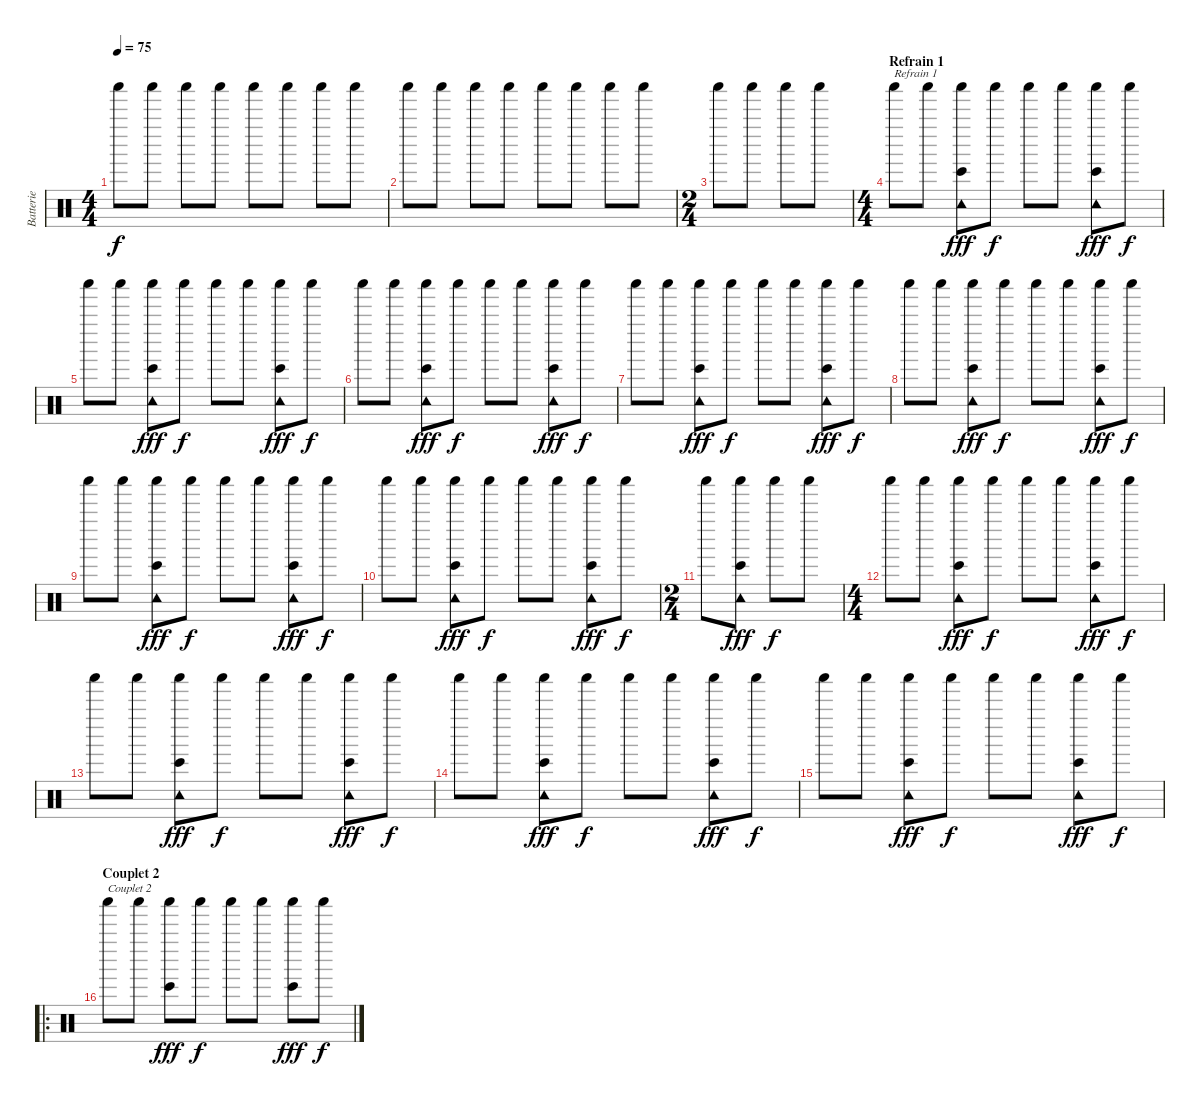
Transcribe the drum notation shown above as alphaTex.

\track ("Batterie" "Batterie") {instrument percussion}
\staff {score}
\articulation defaults
\ts (4 4)
\tempo 75
\clef neutral
\ks c "Shaker (hit)".8{dy f} "Shaker (hit)".8 "Shaker (hit)".8 "Shaker (hit)".8 "Shaker (hit)".8 "Shaker (hit)".8 "Shaker (hit)".8 "Shaker (hit)".8
|
"Shaker (hit)".8 "Shaker (hit)".8 "Shaker (hit)".8 "Shaker (hit)".8 "Shaker (hit)".8 "Shaker (hit)".8 "Shaker (hit)".8 "Shaker (hit)".8 |
\ts (2 4)
"Shaker (hit)".8 "Shaker (hit)".8 "Shaker (hit)".8 "Shaker (hit)".8 |
\ts (4 4)
\section ("" "Refrain 1")
"Shaker (hit)".8{txt "Refrain 1"} "Shaker (hit)".8 ("Shaker (hit)" "Tambourine (hit)" "Bongo High (hit)").8{dy fff} "Shaker (hit)".8{dy f} "Shaker (hit)".8 "Shaker (hit)".8 ("Shaker (hit)" "Tambourine (hit)" "Bongo High (hit)").8{dy fff} "Shaker (hit)".8{dy f} |
"Shaker (hit)".8 "Shaker (hit)".8 ("Shaker (hit)" "Tambourine (hit)" "Bongo High (hit)").8{dy fff} "Shaker (hit)".8{dy f} "Shaker (hit)".8 "Shaker (hit)".8 ("Shaker (hit)" "Tambourine (hit)" "Bongo High (hit)").8{dy fff} "Shaker (hit)".8{dy f} |
"Shaker (hit)".8 "Shaker (hit)".8 ("Shaker (hit)" "Tambourine (hit)" "Bongo High (hit)").8{dy fff} "Shaker (hit)".8{dy f} "Shaker (hit)".8 "Shaker (hit)".8 ("Shaker (hit)" "Tambourine (hit)" "Bongo High (hit)").8{dy fff} "Shaker (hit)".8{dy f} |
"Shaker (hit)".8 "Shaker (hit)".8 ("Shaker (hit)" "Tambourine (hit)" "Bongo High (hit)").8{dy fff} "Shaker (hit)".8{dy f} "Shaker (hit)".8 "Shaker (hit)".8 ("Shaker (hit)" "Tambourine (hit)" "Bongo High (hit)").8{dy fff} "Shaker (hit)".8{dy f} |
"Shaker (hit)".8 "Shaker (hit)".8 ("Shaker (hit)" "Tambourine (hit)" "Bongo High (hit)").8{dy fff} "Shaker (hit)".8{dy f} "Shaker (hit)".8 "Shaker (hit)".8 ("Shaker (hit)" "Tambourine (hit)" "Bongo High (hit)").8{dy fff} "Shaker (hit)".8{dy f} |
"Shaker (hit)".8 "Shaker (hit)".8 ("Shaker (hit)" "Tambourine (hit)" "Bongo High (hit)").8{dy fff} "Shaker (hit)".8{dy f} "Shaker (hit)".8 "Shaker (hit)".8 ("Shaker (hit)" "Tambourine (hit)" "Bongo High (hit)").8{dy fff} "Shaker (hit)".8{dy f} |
"Shaker (hit)".8 "Shaker (hit)".8 ("Shaker (hit)" "Tambourine (hit)" "Bongo High (hit)").8{dy fff} "Shaker (hit)".8{dy f} "Shaker (hit)".8 "Shaker (hit)".8 ("Shaker (hit)" "Tambourine (hit)" "Bongo High (hit)").8{dy fff} "Shaker (hit)".8{dy f} |
\ts (2 4)
"Shaker (hit)".8 ("Shaker (hit)" "Tambourine (hit)" "Bongo High (hit)").8{dy fff} "Shaker (hit)".8{dy f} "Shaker (hit)".8 |
\ts (4 4)
"Shaker (hit)".8 "Shaker (hit)".8 ("Shaker (hit)" "Tambourine (hit)" "Bongo High (hit)").8{dy fff} "Shaker (hit)".8{dy f} "Shaker (hit)".8 "Shaker (hit)".8 ("Shaker (hit)" "Tambourine (hit)" "Bongo High (hit)").8{dy fff} "Shaker (hit)".8{dy f} |
"Shaker (hit)".8 "Shaker (hit)".8 ("Shaker (hit)" "Tambourine (hit)" "Bongo High (hit)").8{dy fff} "Shaker (hit)".8{dy f} "Shaker (hit)".8 "Shaker (hit)".8 ("Shaker (hit)" "Tambourine (hit)" "Bongo High (hit)").8{dy fff} "Shaker (hit)".8{dy f} |
"Shaker (hit)".8 "Shaker (hit)".8 ("Shaker (hit)" "Tambourine (hit)" "Bongo High (hit)").8{dy fff} "Shaker (hit)".8{dy f} "Shaker (hit)".8 "Shaker (hit)".8 ("Shaker (hit)" "Tambourine (hit)" "Bongo High (hit)").8{dy fff} "Shaker (hit)".8{dy f} |
"Shaker (hit)".8 "Shaker (hit)".8 ("Shaker (hit)" "Tambourine (hit)" "Bongo High (hit)").8{dy fff} "Shaker (hit)".8{dy f} "Shaker (hit)".8 "Shaker (hit)".8 ("Shaker (hit)" "Tambourine (hit)" "Bongo High (hit)").8{dy fff} "Shaker (hit)".8{dy f} |
\ro
\section ("" "Couplet 2")
"Shaker (hit)".8{txt "Couplet 2"} "Shaker (hit)".8 ("Shaker (hit)" "Bongo High (hit)").8{dy fff} "Shaker (hit)".8{dy f} "Shaker (hit)".8 "Shaker (hit)".8 ("Shaker (hit)" "Bongo High (hit)").8{dy fff} "Shaker (hit)".8{dy f}
